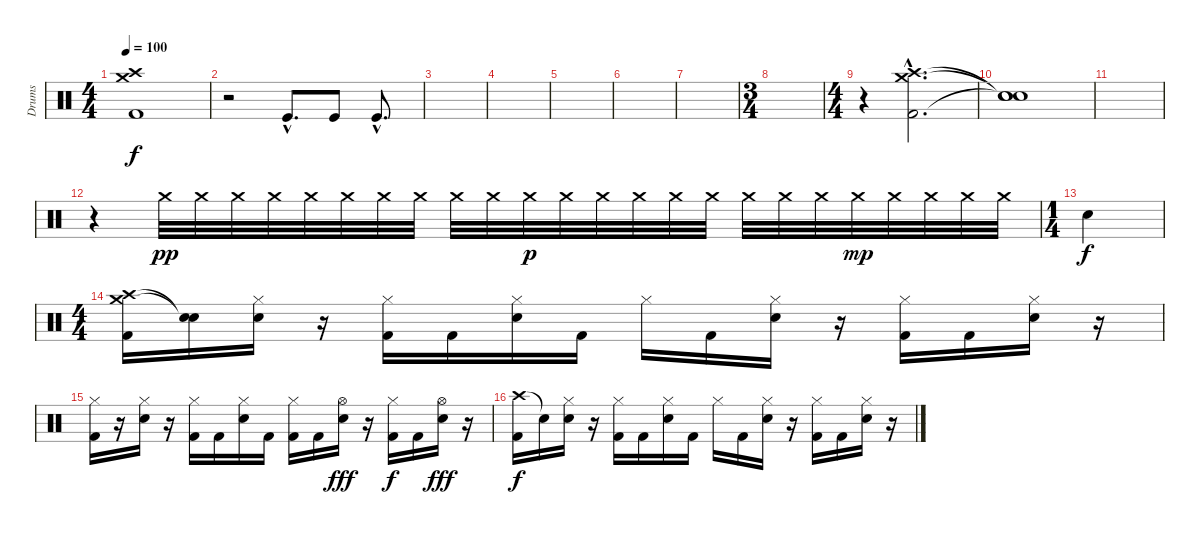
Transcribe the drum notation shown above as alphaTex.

\track ("Drums" "Drums") {instrument percussion}
\staff {score}
\articulation defaults
\ts (4 4)
\tempo 100
\clef neutral
\ks c
("Crash high (hit)" "Crash medium (hit)" "Kick (hit) 2").1{dy f} |
r.2 "Kick (hit)"{hac}.8{d} "Kick (hit)".8 "Kick (hit)"{hac}.8{d} |
|
|
|
|
|
\ts (3 4)
|
\ts (4 4)
r.4 ("Crash high (hit)"{hac} "Crash medium (hit)"{hac} "Kick (hit) 2"{hac}).2{d} |
("Snare (hit)"{t} "Snare (hit)"{t} "Snare (hit)"{t}).1 |
|
r.4 "Crash medium (hit)".32{dy pp} "Crash medium (hit)".32 "Crash medium (hit)".32 "Crash medium (hit)".32 "Crash medium (hit)".32 "Crash medium (hit)".32 "Crash medium (hit)".32 "Crash medium (hit)".32 "Crash medium (hit)".32 "Crash medium (hit)".32 "Crash medium (hit)".32{dy p} "Crash medium (hit)".32 "Crash medium (hit)".32 "Crash medium (hit)".32 "Crash medium (hit)".32 "Crash medium (hit)".32 "Crash medium (hit)".32 "Crash medium (hit)".32 "Crash medium (hit)".32 "Crash medium (hit)".32{dy mp} "Crash medium (hit)".32 "Crash medium (hit)".32 "Crash medium (hit)".32 "Crash medium (hit)".32 |
\ts (1 4)
"Electric Snare (hit)".4{dy f} |
\ts (4 4)
("Crash high (hit)" "Crash medium (hit)" "Kick (hit) 2").16 ("Snare (hit)"{t} "Snare (hit)"{t}).16 ("Hi-Hat (closed)" "Electric Snare (hit)").16 r.16 ("Hi-Hat (closed)" "Kick (hit) 2").16 "Kick (hit) 2".16 ("Hi-Hat (closed)" "Electric Snare (hit)").16 "Kick (hit) 2".16 "Hi-Hat (closed)".16 "Kick (hit) 2".16 ("Hi-Hat (closed)" "Electric Snare (hit)").16 r.16 ("Hi-Hat (closed)" "Kick (hit) 2").16 "Kick (hit) 2".16 ("Hi-Hat (closed)" "Electric Snare (hit)").16 r.16 |
("Hi-Hat (closed)" "Kick (hit) 2").16 r.16 ("Hi-Hat (closed)" "Electric Snare (hit)").16 r.16 ("Hi-Hat (closed)" "Kick (hit) 2").16 "Kick (hit) 2".16 ("Hi-Hat (closed)" "Electric Snare (hit)").16 "Kick (hit) 2".16 ("Hi-Hat (closed)" "Kick (hit) 2").16 "Kick (hit) 2".16 ("Hi-Hat (open)" "Electric Snare (hit)").16{dy fff} r.16 ("Hi-Hat (closed)" "Kick (hit) 2").16{dy f} "Kick (hit) 2".16 ("Hi-Hat (open)" "Electric Snare (hit)").16{dy fff} r.16 |
("Crash high (hit)" "Kick (hit) 2").16{dy f} "Snare (hit)"{t}.16 ("Hi-Hat (closed)" "Electric Snare (hit)").16 r.16 ("Hi-Hat (closed)" "Kick (hit) 2").16 "Kick (hit) 2".16 ("Hi-Hat (closed)" "Electric Snare (hit)").16 "Kick (hit) 2".16 "Hi-Hat (closed)".16 "Kick (hit) 2".16 ("Hi-Hat (closed)" "Electric Snare (hit)").16 r.16 ("Hi-Hat (closed)" "Kick (hit) 2").16 "Kick (hit) 2".16 ("Hi-Hat (closed)" "Electric Snare (hit)").16 r.16
